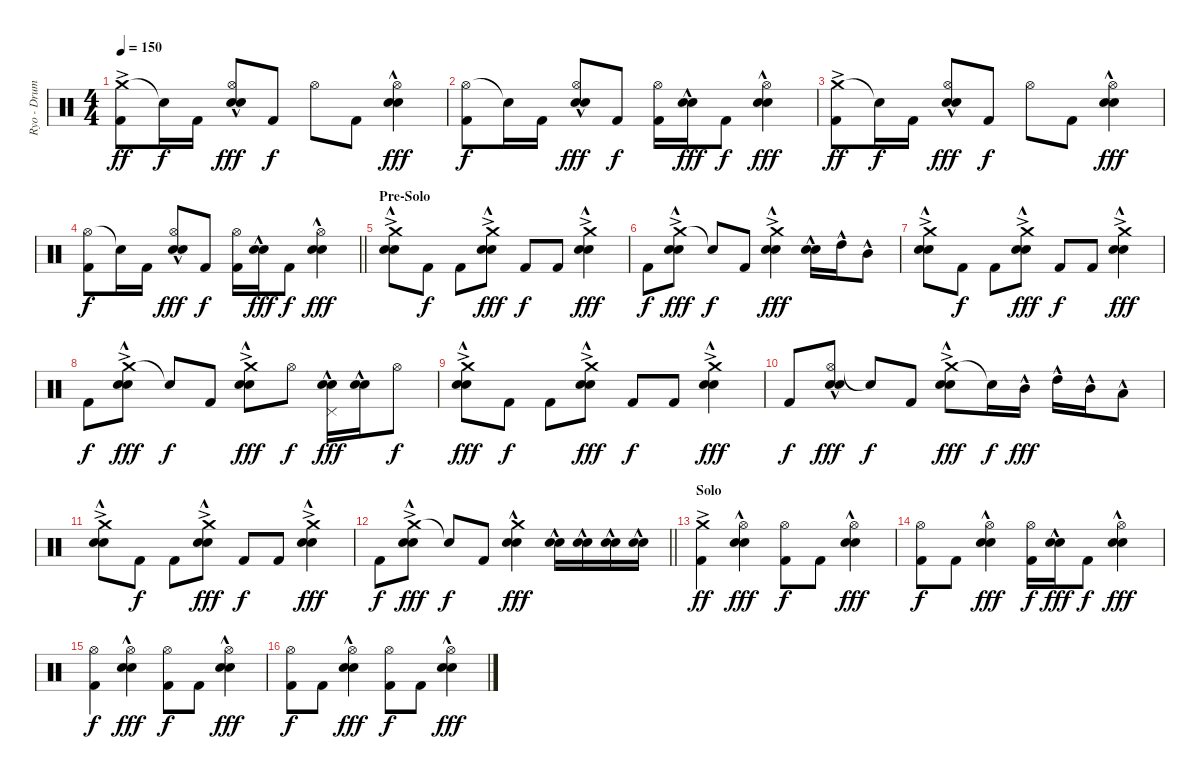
\track ("Ryo - Drums" "Ryo - Drum") {instrument percussion}
\staff {score}
\articulation defaults
\ts (4 4)
\tempo 150
\clef neutral
\ks c
("Crash medium (hit)"{ac} "Kick (hit) 2").8{dy ff} "Snare (hit)"{t}.16{dy f} "Kick (hit) 2".16 ("Hi-Hat (open)" "Electric Snare (hit)"{hac} "Snare (hit) 2"{hac}).8{dy fff} "Kick (hit) 2".8{dy f} "Hi-Hat (open)".8 "Kick (hit) 2".8 ("Hi-Hat (open)" "Electric Snare (hit)"{hac} "Snare (hit) 2"{hac}).4{dy fff} |
("Hi-Hat (open)" "Kick (hit) 2").8{dy f} "Snare (hit)"{t}.16 "Kick (hit) 2".16 ("Hi-Hat (open)" "Electric Snare (hit)"{hac} "Snare (hit) 2"{hac}).8{dy fff} "Kick (hit) 2".8{dy f} ("Hi-Hat (open)" "Kick (hit) 2").16 ("Electric Snare (hit)"{hac} "Snare (hit) 2"{hac}).16{dy fff} "Kick (hit) 2".8{dy f} ("Hi-Hat (open)" "Electric Snare (hit)"{hac} "Snare (hit) 2"{hac}).4{dy fff} |
("Crash medium (hit)"{ac} "Kick (hit) 2").8{dy ff} "Snare (hit)"{t}.16{dy f} "Kick (hit) 2".16 ("Hi-Hat (open)" "Electric Snare (hit)"{hac} "Snare (hit) 2"{hac}).8{dy fff} "Kick (hit) 2".8{dy f} "Hi-Hat (open)".8 "Kick (hit) 2".8 ("Hi-Hat (open)" "Electric Snare (hit)"{hac} "Snare (hit) 2"{hac}).4{dy fff} |
\barLineRight lightlight
("Hi-Hat (open)" "Kick (hit) 2").8{dy f} "Snare (hit)"{t}.16 "Kick (hit) 2".16 ("Hi-Hat (open)" "Electric Snare (hit)"{hac} "Snare (hit) 2"{hac}).8{dy fff} "Kick (hit) 2".8{dy f} ("Hi-Hat (open)" "Kick (hit) 2").16 ("Electric Snare (hit)"{hac} "Snare (hit) 2"{hac}).16{dy fff} "Kick (hit) 2".8{dy f} ("Hi-Hat (open)" "Electric Snare (hit)"{hac} "Snare (hit) 2"{hac}).4{dy fff} |
\section ("" "Pre-Solo")
("Crash medium (hit)"{ac} "Electric Snare (hit)"{hac} "Snare (hit) 2"{hac}).8 "Kick (hit) 2".8{dy f} "Kick (hit) 2".8 ("Crash medium (hit)"{ac} "Electric Snare (hit)"{hac} "Snare (hit) 2"{hac}).8{dy fff} "Kick (hit) 2".8{dy f} "Kick (hit) 2".8 ("Crash medium (hit)"{ac} "Electric Snare (hit)"{hac} "Snare (hit) 2"{hac}).4{dy fff} |
"Kick (hit) 2".8{dy f} ("Crash medium (hit)"{ac} "Electric Snare (hit)"{hac} "Snare (hit) 2"{hac}).8{dy fff} "Snare (hit)"{t}.8{dy f} "Kick (hit) 2".8 ("Crash medium (hit)"{ac} "Electric Snare (hit)"{hac} "Snare (hit) 2"{hac}).4{dy fff} ("Electric Snare (hit)"{hac} "Snare (hit) 2"{hac}).16 "High Tom (hit)"{hac}.16 "Mid Tom (hit)"{hac}.8 |
("Crash medium (hit)"{ac} "Electric Snare (hit)"{hac} "Snare (hit) 2"{hac}).8 "Kick (hit) 2".8{dy f} "Kick (hit) 2".8 ("Crash medium (hit)"{ac} "Electric Snare (hit)"{hac} "Snare (hit) 2"{hac}).8{dy fff} "Kick (hit) 2".8{dy f} "Kick (hit) 2".8 ("Crash medium (hit)"{ac} "Electric Snare (hit)"{hac} "Snare (hit) 2"{hac}).4{dy fff} |
"Kick (hit) 2".8{dy f} ("Crash medium (hit)"{ac} "Electric Snare (hit)"{hac} "Snare (hit) 2"{hac}).8{dy fff} "Snare (hit)"{t}.8{dy f} "Kick (hit) 2".8 ("Crash medium (hit)"{ac} "Electric Snare (hit)"{hac} "Snare (hit) 2"{hac}).8{dy fff} "Hi-Hat (open)".8{dy f} ("Pedal Hi-Hat (hit)" "Electric Snare (hit)"{hac} "Snare (hit) 2"{hac}).16{dy fff} ("Electric Snare (hit)"{hac} "Snare (hit) 2"{hac}).16 "Hi-Hat (open)".8{dy f} |
("Crash medium (hit)"{ac} "Electric Snare (hit)"{hac} "Snare (hit) 2"{hac}).8{dy fff} "Kick (hit) 2".8{dy f} "Kick (hit) 2".8 ("Crash medium (hit)"{ac} "Electric Snare (hit)"{hac} "Snare (hit) 2"{hac}).8{dy fff} "Kick (hit) 2".8{dy f} "Kick (hit) 2".8 ("Crash medium (hit)"{ac} "Electric Snare (hit)"{hac} "Snare (hit) 2"{hac}).4{dy fff} |
"Kick (hit) 2".8{dy f} ("Hi-Hat (open)" "Electric Snare (hit)"{hac} "Snare (hit) 2"{hac}).8{dy fff} "Snare (hit)"{t}.8{dy f} "Kick (hit) 2".8 ("Crash medium (hit)"{ac} "Electric Snare (hit)"{hac} "Snare (hit) 2"{hac}).8{dy fff} "Snare (hit)"{t}.16{dy f} "Mid Tom (hit)"{hac}.16{dy fff} "High Tom (hit)"{hac}.16 "Mid Tom (hit)"{hac}.16 "Low Tom (hit)"{hac}.8 |
("Crash medium (hit)"{ac} "Electric Snare (hit)"{hac} "Snare (hit) 2"{hac}).8 "Kick (hit) 2".8{dy f} "Kick (hit) 2".8 ("Crash medium (hit)"{ac} "Electric Snare (hit)"{hac} "Snare (hit) 2"{hac}).8{dy fff} "Kick (hit) 2".8{dy f} "Kick (hit) 2".8 ("Crash medium (hit)"{ac} "Electric Snare (hit)"{hac} "Snare (hit) 2"{hac}).4{dy fff} |
\barLineRight lightlight "Kick (hit) 2".8{dy f}
("Crash medium (hit)"{ac} "Electric Snare (hit)"{hac} "Snare (hit) 2"{hac}).8{dy fff} "Snare (hit)"{t}.8{dy f} "Kick (hit) 2".8 ("Crash medium (hit)" "Electric Snare (hit)"{hac} "Snare (hit) 2"{hac}).4{dy fff} ("Electric Snare (hit)"{hac} "Snare (hit) 2"{hac}).16 ("Electric Snare (hit)"{hac} "Snare (hit) 2"{hac}).16 ("Electric Snare (hit)"{hac} "Snare (hit) 2"{hac}).16 ("Electric Snare (hit)"{hac} "Snare (hit) 2"{hac}).16 |
\section ("" "Solo")
("Crash medium (hit)"{ac} "Kick (hit) 2").4{dy ff} ("Hi-Hat (open)" "Electric Snare (hit)"{hac} "Snare (hit) 2"{hac}).4{dy fff} ("Hi-Hat (open)" "Kick (hit) 2").8{dy f} "Kick (hit) 2".8 ("Hi-Hat (open)" "Electric Snare (hit)"{hac} "Snare (hit) 2"{hac}).4{dy fff} |
("Hi-Hat (open)" "Kick (hit) 2").8{dy f} "Kick (hit) 2".8 ("Hi-Hat (open)" "Electric Snare (hit)"{hac} "Snare (hit) 2"{hac}).4{dy fff} ("Hi-Hat (open)" "Kick (hit) 2").16{dy f} ("Electric Snare (hit)"{hac} "Snare (hit) 2"{hac}).16{dy fff} "Kick (hit) 2".8{dy f} ("Hi-Hat (open)" "Electric Snare (hit)"{hac} "Snare (hit) 2"{hac}).4{dy fff} |
("Hi-Hat (open)" "Kick (hit) 2").4{dy f} ("Hi-Hat (open)" "Electric Snare (hit)"{hac} "Snare (hit) 2"{hac}).4{dy fff} ("Hi-Hat (open)" "Kick (hit) 2").8{dy f} "Kick (hit) 2".8 ("Hi-Hat (open)" "Electric Snare (hit)"{hac} "Snare (hit) 2"{hac}).4{dy fff} |
("Hi-Hat (open)" "Kick (hit) 2").8{dy f} "Kick (hit) 2".8 ("Hi-Hat (open)" "Electric Snare (hit)"{hac} "Snare (hit) 2"{hac}).4{dy fff} ("Hi-Hat (open)" "Kick (hit) 2").8{dy f} "Kick (hit) 2".8 ("Hi-Hat (open)" "Electric Snare (hit)"{hac} "Snare (hit) 2"{hac}).4{dy fff}
